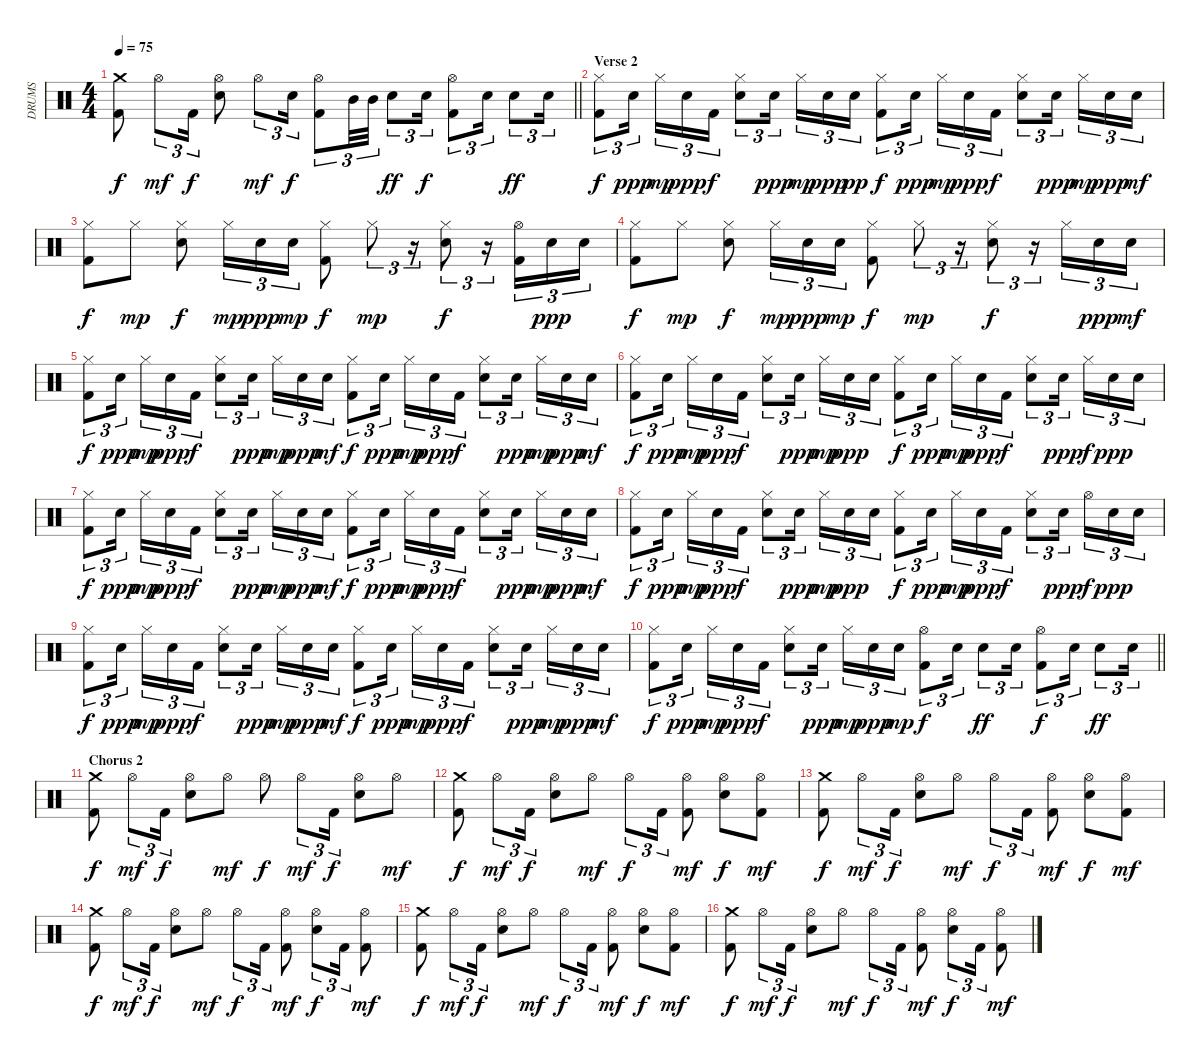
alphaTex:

\track ("DRUMS" "DRUMS") {instrument percussion}
\staff {score}
\articulation defaults
\ts (4 4)
\tempo 75
\clef neutral
\barLineRight lightlight
\ks c
("Crash medium (hit)" "Kick (hit) 2").8{dy f} "Hi-Hat (open)".8{tu (3 2) dy mf} "Kick (hit) 2".16{tu (3 2) dy f} ("Hi-Hat (open)" "Snare (hit) 2").8 "Hi-Hat (open)".8{tu (3 2) dy mf} "Snare (hit) 2".16{tu (3 2) dy f} ("Hi-Hat (open)" "Kick (hit) 2").8{tu (3 2)} "Mid Tom (hit)".32{tu (3 2)} "Mid Tom (hit)".32{tu (3 2)} "Electric Snare (hit)".8{tu (3 2) dy ff} "Snare (hit) 2".16{tu (3 2) dy f} ("Hi-Hat (open)" "Kick (hit) 2").8{tu (3 2)} "Snare (hit) 2".16{tu (3 2)} "Electric Snare (hit)".8{tu (3 2) dy ff} "Snare (hit) 2".16{tu (3 2)} |
\section ("" "Verse 2")
("Hi-Hat (closed)" "Kick (hit) 2").8{tu (3 2) dy f} "Snare (hit) 2".16{tu (3 2) dy ppp beam splitsecondary} "Hi-Hat (closed)".16{tu (3 2) dy mp} "Snare (hit) 2".16{tu (3 2) dy ppp} "Kick (hit) 2".16{tu (3 2) dy f} ("Hi-Hat (closed)" "Snare (hit) 2").8{tu (3 2)} "Snare (hit) 2".16{tu (3 2) dy ppp beam splitsecondary} "Hi-Hat (closed)".16{tu (3 2) dy mp} "Snare (hit) 2".16{tu (3 2) dy ppp} "Snare (hit) 2".16{tu (3 2) dy pp} ("Hi-Hat (closed)" "Kick (hit) 2").8{tu (3 2) dy f} "Snare (hit) 2".16{tu (3 2) dy ppp beam splitsecondary} "Hi-Hat (closed)".16{tu (3 2) dy mp} "Snare (hit) 2".16{tu (3 2) dy ppp} "Kick (hit) 2".16{tu (3 2) dy f} ("Hi-Hat (closed)" "Snare (hit) 2").8{tu (3 2)} "Snare (hit) 2".16{tu (3 2) dy ppp beam splitsecondary} "Hi-Hat (closed)".16{tu (3 2) dy mp} "Snare (hit) 2".16{tu (3 2) dy ppp} "Snare (hit) 2".16{tu (3 2) dy mf} |
("Hi-Hat (closed)" "Kick (hit) 2").8{dy f} "Hi-Hat (closed)".8{dy mp} ("Hi-Hat (closed)" "Snare (hit) 2").8{dy f} "Hi-Hat (closed)".16{tu (3 2) dy mp} "Snare (hit) 2".16{tu (3 2) dy ppp} "Snare (hit) 2".16{tu (3 2) dy mp} ("Hi-Hat (closed)" "Kick (hit) 2").8{dy f} "Hi-Hat (closed)".8{tu (3 2) dy mp} r.16{tu (3 2)} ("Hi-Hat (closed)" "Snare (hit) 2").8{tu (3 2) dy f} r.16{tu (3 2)} ("Hi-Hat (open)" "Kick (hit) 2").16{tu (3 2)} "Snare (hit) 2".16{tu (3 2) dy ppp} "Snare (hit) 2".16{tu (3 2)} |
("Hi-Hat (closed)" "Kick (hit) 2").8{dy f} "Hi-Hat (closed)".8{dy mp} ("Hi-Hat (closed)" "Snare (hit) 2").8{dy f} "Hi-Hat (closed)".16{tu (3 2) dy mp} "Snare (hit) 2".16{tu (3 2) dy ppp} "Snare (hit) 2".16{tu (3 2) dy mp} ("Hi-Hat (closed)" "Kick (hit) 2").8{dy f} "Hi-Hat (closed)".8{tu (3 2) dy mp} r.16{tu (3 2)} ("Hi-Hat (closed)" "Snare (hit) 2").8{tu (3 2) dy f} r.16{tu (3 2)} "Hi-Hat (closed)".16{tu (3 2)} "Snare (hit) 2".16{tu (3 2) dy ppp} "Snare (hit) 2".16{tu (3 2) dy mf} |
("Hi-Hat (closed)" "Kick (hit) 2").8{tu (3 2) dy f} "Snare (hit) 2".16{tu (3 2) dy ppp beam splitsecondary} "Hi-Hat (closed)".16{tu (3 2) dy mp} "Snare (hit) 2".16{tu (3 2) dy ppp} "Kick (hit) 2".16{tu (3 2) dy f} ("Hi-Hat (closed)" "Snare (hit) 2").8{tu (3 2)} "Snare (hit) 2".16{tu (3 2) dy ppp beam splitsecondary} "Hi-Hat (closed)".16{tu (3 2) dy mp} "Snare (hit) 2".16{tu (3 2) dy ppp} "Snare (hit) 2".16{tu (3 2) dy mf} ("Hi-Hat (closed)" "Kick (hit) 2").8{tu (3 2) dy f} "Snare (hit) 2".16{tu (3 2) dy ppp beam splitsecondary} "Hi-Hat (closed)".16{tu (3 2) dy mp} "Snare (hit) 2".16{tu (3 2) dy ppp} "Kick (hit) 2".16{tu (3 2) dy f} ("Hi-Hat (closed)" "Snare (hit) 2").8{tu (3 2)} "Snare (hit) 2".16{tu (3 2) dy ppp beam splitsecondary} "Hi-Hat (closed)".16{tu (3 2) dy mp} "Snare (hit) 2".16{tu (3 2) dy ppp} "Snare (hit) 2".16{tu (3 2) dy mf} |
("Hi-Hat (closed)" "Kick (hit) 2").8{tu (3 2) dy f} "Snare (hit) 2".16{tu (3 2) dy ppp beam splitsecondary} "Hi-Hat (closed)".16{tu (3 2) dy mp} "Snare (hit) 2".16{tu (3 2) dy ppp} "Kick (hit) 2".16{tu (3 2) dy f} ("Hi-Hat (closed)" "Snare (hit) 2").8{tu (3 2)} "Snare (hit) 2".16{tu (3 2) dy ppp beam splitsecondary} "Hi-Hat (closed)".16{tu (3 2) dy mp} "Snare (hit) 2".16{tu (3 2) dy ppp} "Snare (hit) 2".16{tu (3 2)} ("Hi-Hat (closed)" "Kick (hit) 2").8{tu (3 2) dy f} "Snare (hit) 2".16{tu (3 2) dy ppp beam splitsecondary} "Hi-Hat (closed)".16{tu (3 2) dy mp} "Snare (hit) 2".16{tu (3 2) dy ppp} "Kick (hit) 2".16{tu (3 2) dy f} ("Hi-Hat (closed)" "Snare (hit) 2").8{tu (3 2)} "Snare (hit) 2".16{tu (3 2) dy ppp beam splitsecondary} "Hi-Hat (closed)".16{tu (3 2) dy f} "Snare (hit) 2".16{tu (3 2) dy ppp} "Snare (hit) 2".16{tu (3 2)} |
("Hi-Hat (closed)" "Kick (hit) 2").8{tu (3 2) dy f} "Snare (hit) 2".16{tu (3 2) dy ppp beam splitsecondary} "Hi-Hat (closed)".16{tu (3 2) dy mp} "Snare (hit) 2".16{tu (3 2) dy ppp} "Kick (hit) 2".16{tu (3 2) dy f} ("Hi-Hat (closed)" "Snare (hit) 2").8{tu (3 2)} "Snare (hit) 2".16{tu (3 2) dy ppp beam splitsecondary} "Hi-Hat (closed)".16{tu (3 2) dy mp} "Snare (hit) 2".16{tu (3 2) dy ppp} "Snare (hit) 2".16{tu (3 2) dy mf} ("Hi-Hat (closed)" "Kick (hit) 2").8{tu (3 2) dy f} "Snare (hit) 2".16{tu (3 2) dy ppp beam splitsecondary} "Hi-Hat (closed)".16{tu (3 2) dy mp} "Snare (hit) 2".16{tu (3 2) dy ppp} "Kick (hit) 2".16{tu (3 2) dy f} ("Hi-Hat (closed)" "Snare (hit) 2").8{tu (3 2)} "Snare (hit) 2".16{tu (3 2) dy ppp beam splitsecondary} "Hi-Hat (closed)".16{tu (3 2) dy mp} "Snare (hit) 2".16{tu (3 2) dy ppp} "Snare (hit) 2".16{tu (3 2) dy mf} |
("Hi-Hat (closed)" "Kick (hit) 2").8{tu (3 2) dy f} "Snare (hit) 2".16{tu (3 2) dy ppp beam splitsecondary} "Hi-Hat (closed)".16{tu (3 2) dy mp} "Snare (hit) 2".16{tu (3 2) dy ppp} "Kick (hit) 2".16{tu (3 2) dy f} ("Hi-Hat (closed)" "Snare (hit) 2").8{tu (3 2)} "Snare (hit) 2".16{tu (3 2) dy ppp beam splitsecondary} "Hi-Hat (closed)".16{tu (3 2) dy mp} "Snare (hit) 2".16{tu (3 2) dy ppp} "Snare (hit) 2".16{tu (3 2)} ("Hi-Hat (closed)" "Kick (hit) 2").8{tu (3 2) dy f} "Snare (hit) 2".16{tu (3 2) dy ppp beam splitsecondary} "Hi-Hat (closed)".16{tu (3 2) dy mp} "Snare (hit) 2".16{tu (3 2) dy ppp} "Kick (hit) 2".16{tu (3 2) dy f} ("Hi-Hat (closed)" "Snare (hit) 2").8{tu (3 2)} "Snare (hit) 2".16{tu (3 2) dy ppp beam splitsecondary} "Hi-Hat (open)".16{tu (3 2) dy f} "Snare (hit) 2".16{tu (3 2) dy ppp} "Snare (hit) 2".16{tu (3 2)} |
("Hi-Hat (closed)" "Kick (hit) 2").8{tu (3 2) dy f} "Snare (hit) 2".16{tu (3 2) dy ppp beam splitsecondary} "Hi-Hat (closed)".16{tu (3 2) dy mp} "Snare (hit) 2".16{tu (3 2) dy ppp} "Kick (hit) 2".16{tu (3 2) dy f} ("Hi-Hat (closed)" "Snare (hit) 2").8{tu (3 2)} "Snare (hit) 2".16{tu (3 2) dy ppp beam splitsecondary} "Hi-Hat (closed)".16{tu (3 2) dy mp} "Snare (hit) 2".16{tu (3 2) dy ppp} "Snare (hit) 2".16{tu (3 2) dy mf} ("Hi-Hat (closed)" "Kick (hit) 2").8{tu (3 2) dy f} "Snare (hit) 2".16{tu (3 2) dy ppp beam splitsecondary} "Hi-Hat (closed)".16{tu (3 2) dy mp} "Snare (hit) 2".16{tu (3 2) dy ppp} "Kick (hit) 2".16{tu (3 2) dy f} ("Hi-Hat (closed)" "Snare (hit) 2").8{tu (3 2)} "Snare (hit) 2".16{tu (3 2) dy ppp beam splitsecondary} "Hi-Hat (closed)".16{tu (3 2) dy mp} "Snare (hit) 2".16{tu (3 2) dy ppp} "Snare (hit) 2".16{tu (3 2) dy mf} |
\barLineRight lightlight
("Hi-Hat (closed)" "Kick (hit) 2").8{tu (3 2) dy f} "Snare (hit) 2".16{tu (3 2) dy ppp beam splitsecondary} "Hi-Hat (closed)".16{tu (3 2) dy mp} "Snare (hit) 2".16{tu (3 2) dy ppp} "Kick (hit) 2".16{tu (3 2) dy f} ("Hi-Hat (closed)" "Snare (hit) 2").8{tu (3 2)} "Snare (hit) 2".16{tu (3 2) dy ppp beam splitsecondary} "Hi-Hat (closed)".16{tu (3 2) dy mp} "Snare (hit) 2".16{tu (3 2) dy ppp} "Snare (hit) 2".16{tu (3 2) dy mp} ("Hi-Hat (open)" "Kick (hit) 2").8{tu (3 2) dy f} "Snare (hit) 2".16{tu (3 2)} "Electric Snare (hit)".8{tu (3 2) dy ff} "Snare (hit) 2".16{tu (3 2)} ("Hi-Hat (open)" "Kick (hit) 2").8{tu (3 2) dy f} "Snare (hit) 2".16{tu (3 2)} "Electric Snare (hit)".8{tu (3 2) dy ff} "Snare (hit) 2".16{tu (3 2)} |
\section ("" "Chorus 2")
("Crash medium (hit)" "Kick (hit) 2").8{dy f} "Hi-Hat (open)".8{tu (3 2) dy mf} "Kick (hit) 2".16{tu (3 2) dy f} ("Hi-Hat (open)" "Snare (hit) 2").8 "Hi-Hat (open)".8{dy mf} "Hi-Hat (open)".8{dy f} "Hi-Hat (open)".8{tu (3 2) dy mf} "Kick (hit) 2".16{tu (3 2) dy f} ("Hi-Hat (open)" "Snare (hit) 2").8 "Hi-Hat (open)".8{dy mf} |
("Crash medium (hit)" "Kick (hit) 2").8{dy f} "Hi-Hat (open)".8{tu (3 2) dy mf} "Kick (hit) 2".16{tu (3 2) dy f} ("Hi-Hat (open)" "Snare (hit) 2").8 "Hi-Hat (open)".8{dy mf} "Hi-Hat (open)".8{tu (3 2) dy f} "Kick (hit) 2".16{tu (3 2)} ("Hi-Hat (open)" "Kick (hit) 2").8{dy mf} ("Hi-Hat (open)" "Snare (hit) 2").8{dy f} ("Hi-Hat (open)" "Kick (hit) 2").8{dy mf} |
("Crash medium (hit)" "Kick (hit) 2").8{dy f} "Hi-Hat (open)".8{tu (3 2) dy mf} "Kick (hit) 2".16{tu (3 2) dy f} ("Hi-Hat (open)" "Snare (hit) 2").8 "Hi-Hat (open)".8{dy mf} "Hi-Hat (open)".8{tu (3 2) dy f} "Kick (hit) 2".16{tu (3 2)} ("Hi-Hat (open)" "Kick (hit) 2").8{dy mf} ("Hi-Hat (open)" "Snare (hit) 2").8{dy f} ("Hi-Hat (open)" "Kick (hit) 2").8{dy mf} |
("Crash medium (hit)" "Kick (hit) 2").8{dy f} "Hi-Hat (open)".8{tu (3 2) dy mf} "Kick (hit) 2".16{tu (3 2) dy f} ("Hi-Hat (open)" "Snare (hit) 2").8 "Hi-Hat (open)".8{dy mf} "Hi-Hat (open)".8{tu (3 2) dy f} "Kick (hit) 2".16{tu (3 2)} ("Hi-Hat (open)" "Kick (hit) 2").8{dy mf} ("Hi-Hat (open)" "Snare (hit) 2").8{tu (3 2) dy f} "Kick (hit) 2".16{tu (3 2)} ("Hi-Hat (open)" "Kick (hit) 2").8{dy mf} |
("Crash medium (hit)" "Kick (hit) 2").8{dy f} "Hi-Hat (open)".8{tu (3 2) dy mf} "Kick (hit) 2".16{tu (3 2) dy f} ("Hi-Hat (open)" "Snare (hit) 2").8 "Hi-Hat (open)".8{dy mf} "Hi-Hat (open)".8{tu (3 2) dy f} "Kick (hit) 2".16{tu (3 2)} ("Hi-Hat (open)" "Kick (hit) 2").8{dy mf} ("Hi-Hat (open)" "Snare (hit) 2").8{dy f} ("Hi-Hat (open)" "Kick (hit) 2").8{dy mf} |
("Crash medium (hit)" "Kick (hit) 2").8{dy f} "Hi-Hat (open)".8{tu (3 2) dy mf} "Kick (hit) 2".16{tu (3 2) dy f} ("Hi-Hat (open)" "Snare (hit) 2").8 "Hi-Hat (open)".8{dy mf} "Hi-Hat (open)".8{tu (3 2) dy f} "Kick (hit) 2".16{tu (3 2)} ("Hi-Hat (open)" "Kick (hit) 2").8{dy mf} ("Hi-Hat (open)" "Snare (hit) 2").8{tu (3 2) dy f} "Kick (hit) 2".16{tu (3 2)} ("Hi-Hat (open)" "Kick (hit) 2").8{dy mf}
